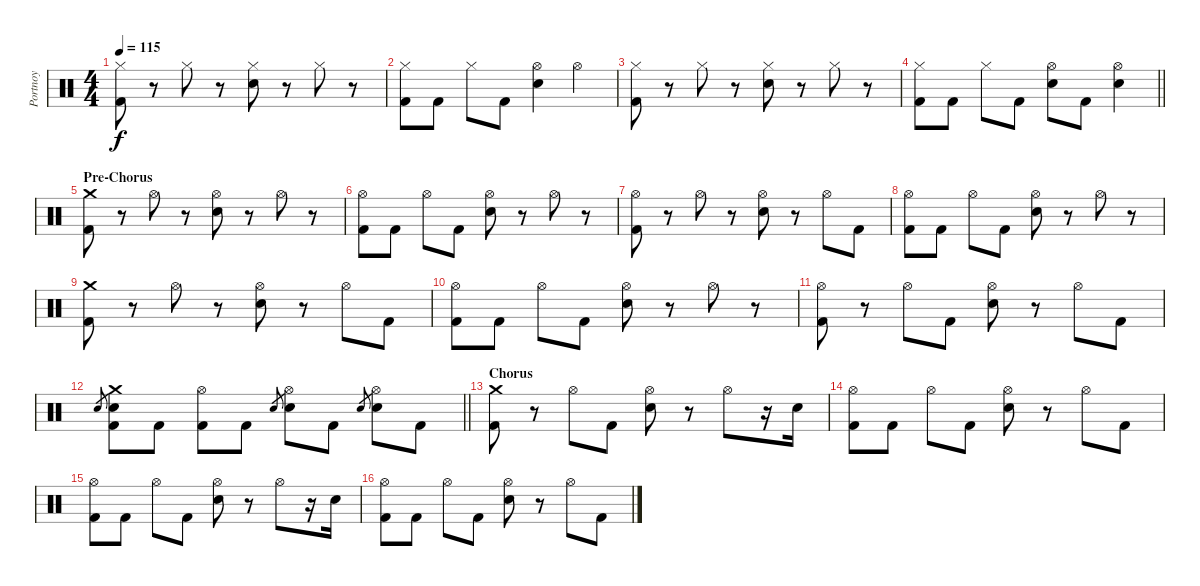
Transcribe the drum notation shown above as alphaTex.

\track ("Portnoy" "Portnoy") {instrument percussion}
\staff {score}
\articulation defaults
\ts (4 4)
\tempo 115
\clef neutral
\ks c
("Hi-Hat (closed)" "Kick (hit) 2").8{dy f} r.8 "Hi-Hat (closed)".8 r.8 ("Hi-Hat (closed)" "Snare (hit) 2").8 r.8 "Hi-Hat (closed)".8 r.8 |
("Hi-Hat (closed)" "Kick (hit) 2").8 "Kick (hit) 2".8 "Hi-Hat (closed)".8 "Kick (hit) 2".8 ("Hi-Hat (open)" "Snare (hit) 2").4 "Hi-Hat (open)".4 |
("Hi-Hat (closed)" "Kick (hit) 2").8 r.8 "Hi-Hat (closed)".8 r.8 ("Hi-Hat (closed)" "Snare (hit) 2").8 r.8 "Hi-Hat (closed)".8 r.8 |
\barLineRight lightlight
("Hi-Hat (closed)" "Kick (hit) 2").8 "Kick (hit) 2".8 "Hi-Hat (closed)".8 "Kick (hit) 2".8 ("Hi-Hat (open)" "Snare (hit) 2").8 "Kick (hit) 2".8 ("Hi-Hat (open)" "Snare (hit) 2").4 |
\section ("" "Pre-Chorus")
("Crash medium (hit)" "Kick (hit) 2").8 r.8 "Hi-Hat (open)".8 r.8 ("Hi-Hat (open)" "Snare (hit) 2").8 r.8 "Hi-Hat (open)".8 r.8 |
("Hi-Hat (open)" "Kick (hit) 2").8 "Kick (hit) 2".8 "Hi-Hat (open)".8 "Kick (hit) 2".8 ("Hi-Hat (open)" "Snare (hit) 2").8 r.8 "Hi-Hat (open)".8 r.8 |
("Hi-Hat (open)" "Kick (hit) 2").8 r.8 "Hi-Hat (open)".8 r.8 ("Hi-Hat (open)" "Snare (hit) 2").8 r.8 "Hi-Hat (open)".8 "Kick (hit) 2".8 |
("Hi-Hat (open)" "Kick (hit) 2").8 "Kick (hit) 2".8 "Hi-Hat (open)".8 "Kick (hit) 2".8 ("Hi-Hat (open)" "Snare (hit) 2").8 r.8 "Hi-Hat (open)".8 r.8 |
("Crash medium (hit)" "Kick (hit) 2").8 r.8 "Hi-Hat (open)".8 r.8 ("Hi-Hat (open)" "Snare (hit) 2").8 r.8 "Hi-Hat (open)".8 "Kick (hit) 2".8 |
("Hi-Hat (open)" "Kick (hit) 2").8 "Kick (hit) 2".8 "Hi-Hat (open)".8 "Kick (hit) 2".8 ("Hi-Hat (open)" "Snare (hit) 2").8 r.8 "Hi-Hat (open)".8 r.8 |
("Hi-Hat (open)" "Kick (hit) 2").8 r.8 "Hi-Hat (open)".8 "Kick (hit) 2".8 ("Hi-Hat (open)" "Snare (hit) 2").8 r.8 "Hi-Hat (open)".8 "Kick (hit) 2".8 |
\barLineRight lightlight "Snare (hit) 2".8{gr}
("Crash medium (hit)" "Snare (hit) 2" "Kick (hit) 2").8 "Kick (hit) 2".8 ("Hi-Hat (open)" "Kick (hit) 2").8 "Kick (hit) 2".8 "Snare (hit) 2".8{gr} ("Hi-Hat (open)" "Snare (hit) 2").8 "Kick (hit) 2".8 "Snare (hit) 2".8{gr} ("Hi-Hat (open)" "Snare (hit) 2").8 "Kick (hit) 2".8 |
\section ("" "Chorus")
("Crash medium (hit)" "Kick (hit) 2").8 r.8 "Hi-Hat (open)".8 "Kick (hit) 2".8 ("Hi-Hat (open)" "Snare (hit) 2").8 r.8 "Hi-Hat (open)".8 r.16 "Snare (hit) 2".16 |
("Hi-Hat (open)" "Kick (hit) 2").8 "Kick (hit) 2".8 "Hi-Hat (open)".8 "Kick (hit) 2".8 ("Hi-Hat (open)" "Snare (hit) 2").8 r.8 "Hi-Hat (open)".8 "Kick (hit) 2".8 |
("Hi-Hat (open)" "Kick (hit) 2").8 "Kick (hit) 2".8 "Hi-Hat (open)".8 "Kick (hit) 2".8 ("Hi-Hat (open)" "Snare (hit) 2").8 r.8 "Hi-Hat (open)".8 r.16 "Snare (hit) 2".16 |
("Hi-Hat (open)" "Kick (hit) 2").8 "Kick (hit) 2".8 "Hi-Hat (open)".8 "Kick (hit) 2".8 ("Hi-Hat (open)" "Snare (hit) 2").8 r.8 "Hi-Hat (open)".8 "Kick (hit) 2".8
